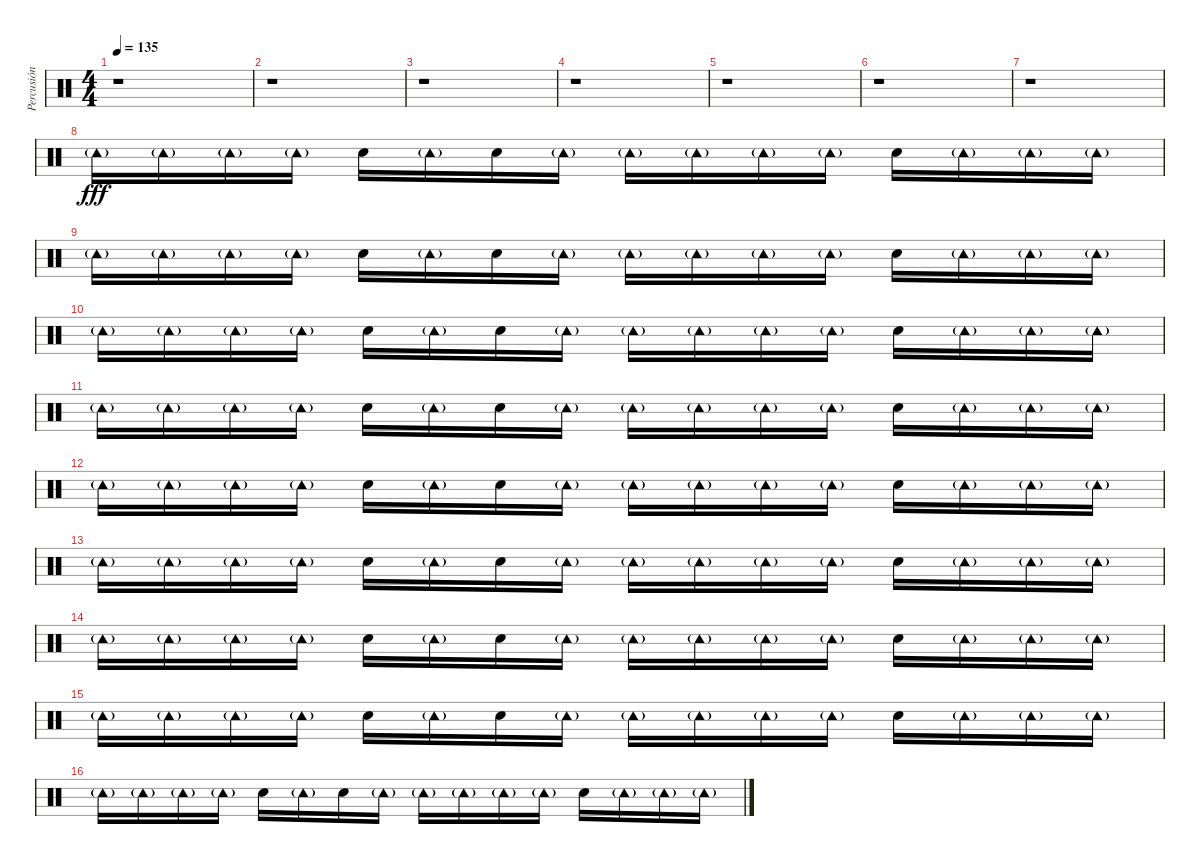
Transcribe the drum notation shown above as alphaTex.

\track ("Percusión" "Percusión") {instrument percussion}
\staff {score}
\articulation defaults
\ts (4 4)
\tempo 135
\clef neutral
\ks c
r.1{dy fff} |
r.1 |
r.1 |
r.1 |
r.1 |
r.1 |
r.1 |
"Tambourine (hit)"{g}.16 "Tambourine (hit)"{g}.16 "Tambourine (hit)"{g}.16 "Tambourine (hit)"{g}.16 "Hand Clap (hit)".16 "Tambourine (hit)"{g}.16 "Hand Clap (hit)".16 "Tambourine (hit)"{g}.16 "Tambourine (hit)"{g}.16 "Tambourine (hit)"{g}.16 "Tambourine (hit)"{g}.16 "Tambourine (hit)"{g}.16 "Hand Clap (hit)".16 "Tambourine (hit)"{g}.16 "Tambourine (hit)"{g}.16 "Tambourine (hit)"{g}.16 |
"Tambourine (hit)"{g}.16 "Tambourine (hit)"{g}.16 "Tambourine (hit)"{g}.16 "Tambourine (hit)"{g}.16 "Hand Clap (hit)".16 "Tambourine (hit)"{g}.16 "Hand Clap (hit)".16 "Tambourine (hit)"{g}.16 "Tambourine (hit)"{g}.16 "Tambourine (hit)"{g}.16 "Tambourine (hit)"{g}.16 "Tambourine (hit)"{g}.16 "Hand Clap (hit)".16 "Tambourine (hit)"{g}.16 "Tambourine (hit)"{g}.16 "Tambourine (hit)"{g}.16 |
"Tambourine (hit)"{g}.16 "Tambourine (hit)"{g}.16 "Tambourine (hit)"{g}.16 "Tambourine (hit)"{g}.16 "Hand Clap (hit)".16 "Tambourine (hit)"{g}.16 "Hand Clap (hit)".16 "Tambourine (hit)"{g}.16 "Tambourine (hit)"{g}.16 "Tambourine (hit)"{g}.16 "Tambourine (hit)"{g}.16 "Tambourine (hit)"{g}.16 "Hand Clap (hit)".16 "Tambourine (hit)"{g}.16 "Tambourine (hit)"{g}.16 "Tambourine (hit)"{g}.16 |
"Tambourine (hit)"{g}.16 "Tambourine (hit)"{g}.16 "Tambourine (hit)"{g}.16 "Tambourine (hit)"{g}.16 "Hand Clap (hit)".16 "Tambourine (hit)"{g}.16 "Hand Clap (hit)".16 "Tambourine (hit)"{g}.16 "Tambourine (hit)"{g}.16 "Tambourine (hit)"{g}.16 "Tambourine (hit)"{g}.16 "Tambourine (hit)"{g}.16 "Hand Clap (hit)".16 "Tambourine (hit)"{g}.16 "Tambourine (hit)"{g}.16 "Tambourine (hit)"{g}.16 |
"Tambourine (hit)"{g}.16 "Tambourine (hit)"{g}.16 "Tambourine (hit)"{g}.16 "Tambourine (hit)"{g}.16 "Hand Clap (hit)".16 "Tambourine (hit)"{g}.16 "Hand Clap (hit)".16 "Tambourine (hit)"{g}.16 "Tambourine (hit)"{g}.16 "Tambourine (hit)"{g}.16 "Tambourine (hit)"{g}.16 "Tambourine (hit)"{g}.16 "Hand Clap (hit)".16 "Tambourine (hit)"{g}.16 "Tambourine (hit)"{g}.16 "Tambourine (hit)"{g}.16 |
"Tambourine (hit)"{g}.16 "Tambourine (hit)"{g}.16 "Tambourine (hit)"{g}.16 "Tambourine (hit)"{g}.16 "Hand Clap (hit)".16 "Tambourine (hit)"{g}.16 "Hand Clap (hit)".16 "Tambourine (hit)"{g}.16 "Tambourine (hit)"{g}.16 "Tambourine (hit)"{g}.16 "Tambourine (hit)"{g}.16 "Tambourine (hit)"{g}.16 "Hand Clap (hit)".16 "Tambourine (hit)"{g}.16 "Tambourine (hit)"{g}.16 "Tambourine (hit)"{g}.16 |
"Tambourine (hit)"{g}.16 "Tambourine (hit)"{g}.16 "Tambourine (hit)"{g}.16 "Tambourine (hit)"{g}.16 "Hand Clap (hit)".16 "Tambourine (hit)"{g}.16 "Hand Clap (hit)".16 "Tambourine (hit)"{g}.16 "Tambourine (hit)"{g}.16 "Tambourine (hit)"{g}.16 "Tambourine (hit)"{g}.16 "Tambourine (hit)"{g}.16 "Hand Clap (hit)".16 "Tambourine (hit)"{g}.16 "Tambourine (hit)"{g}.16 "Tambourine (hit)"{g}.16 |
"Tambourine (hit)"{g}.16 "Tambourine (hit)"{g}.16 "Tambourine (hit)"{g}.16 "Tambourine (hit)"{g}.16 "Hand Clap (hit)".16 "Tambourine (hit)"{g}.16 "Hand Clap (hit)".16 "Tambourine (hit)"{g}.16 "Tambourine (hit)"{g}.16 "Tambourine (hit)"{g}.16 "Tambourine (hit)"{g}.16 "Tambourine (hit)"{g}.16 "Hand Clap (hit)".16 "Tambourine (hit)"{g}.16 "Tambourine (hit)"{g}.16 "Tambourine (hit)"{g}.16 |
"Tambourine (hit)"{g}.16 "Tambourine (hit)"{g}.16 "Tambourine (hit)"{g}.16 "Tambourine (hit)"{g}.16 "Hand Clap (hit)".16 "Tambourine (hit)"{g}.16 "Hand Clap (hit)".16 "Tambourine (hit)"{g}.16 "Tambourine (hit)"{g}.16 "Tambourine (hit)"{g}.16 "Tambourine (hit)"{g}.16 "Tambourine (hit)"{g}.16 "Hand Clap (hit)".16 "Tambourine (hit)"{g}.16 "Tambourine (hit)"{g}.16 "Tambourine (hit)"{g}.16
